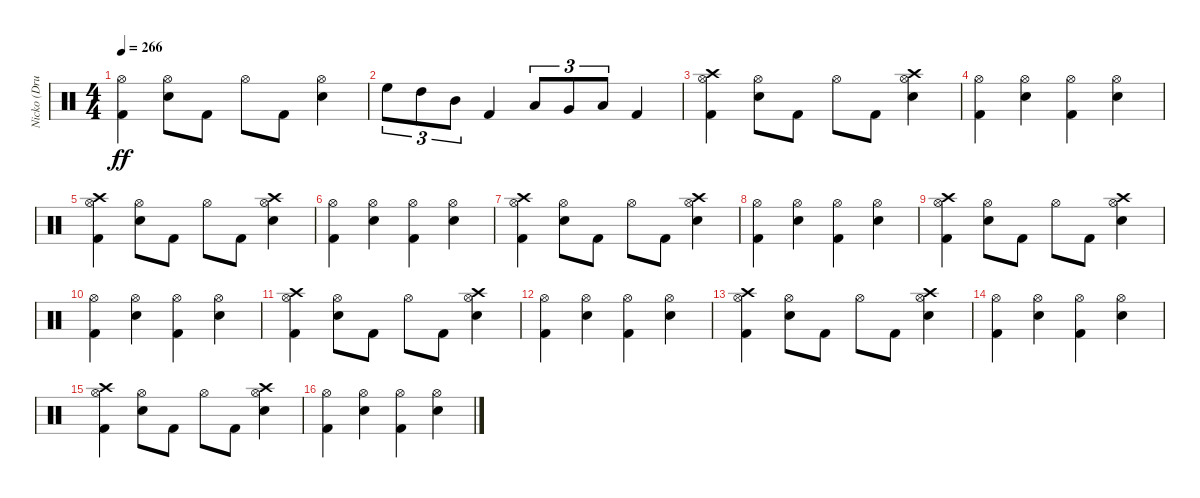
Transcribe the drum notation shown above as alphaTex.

\track ("Nicko (Drums)" "Nicko (Dru") {instrument percussion}
\staff {score}
\articulation defaults
\ts (4 4)
\tempo 266
\clef neutral
\ks c
("Kick (hit) 2" "Hi-Hat (open)").4{dy ff} ("Snare (hit) 2" "Hi-Hat (open)").8 "Kick (hit) 2".8 "Hi-Hat (open)".8 "Kick (hit) 2".8 ("Snare (hit) 2" "Hi-Hat (open)").4 |
"High Floor Tom (hit)".8{tu (3 2)} "High Tom (hit)".8{tu (3 2)} "Mid Tom (hit)".8{tu (3 2)} "Kick (hit) 2".4 "Low Tom (hit)".8{tu (3 2)} "Very Low Tom (hit)".8{tu (3 2)} "Low Floor Tom (hit)".8{tu (3 2)} "Kick (hit) 2".4 |
("Kick (hit) 2" "Hi-Hat (open)" "Crash high (hit)").4 ("Snare (hit) 2" "Hi-Hat (open)").8 "Kick (hit) 2".8 "Hi-Hat (open)".8 "Kick (hit) 2".8 ("Snare (hit) 2" "Hi-Hat (open)" "Crash high (hit)").4 |
("Kick (hit) 2" "Hi-Hat (open)").4 ("Snare (hit) 2" "Hi-Hat (open)").4 ("Kick (hit) 2" "Hi-Hat (open)").4 ("Snare (hit) 2" "Hi-Hat (open)").4 |
("Kick (hit) 2" "Hi-Hat (open)" "Crash high (hit)").4 ("Snare (hit) 2" "Hi-Hat (open)").8 "Kick (hit) 2".8 "Hi-Hat (open)".8 "Kick (hit) 2".8 ("Snare (hit) 2" "Hi-Hat (open)" "Crash high (hit)").4 |
("Kick (hit) 2" "Hi-Hat (open)").4 ("Snare (hit) 2" "Hi-Hat (open)").4 ("Kick (hit) 2" "Hi-Hat (open)").4 ("Snare (hit) 2" "Hi-Hat (open)").4 |
("Kick (hit) 2" "Hi-Hat (open)" "Crash high (hit)").4 ("Snare (hit) 2" "Hi-Hat (open)").8 "Kick (hit) 2".8 "Hi-Hat (open)".8 "Kick (hit) 2".8 ("Snare (hit) 2" "Hi-Hat (open)" "Crash high (hit)").4 |
("Kick (hit) 2" "Hi-Hat (open)").4 ("Snare (hit) 2" "Hi-Hat (open)").4 ("Kick (hit) 2" "Hi-Hat (open)").4 ("Snare (hit) 2" "Hi-Hat (open)").4 |
("Kick (hit) 2" "Hi-Hat (open)" "Crash high (hit)").4 ("Snare (hit) 2" "Hi-Hat (open)").8 "Kick (hit) 2".8 "Hi-Hat (open)".8 "Kick (hit) 2".8 ("Snare (hit) 2" "Hi-Hat (open)" "Crash high (hit)").4 |
("Kick (hit) 2" "Hi-Hat (open)").4 ("Snare (hit) 2" "Hi-Hat (open)").4 ("Kick (hit) 2" "Hi-Hat (open)").4 ("Snare (hit) 2" "Hi-Hat (open)").4 |
("Kick (hit) 2" "Hi-Hat (open)" "Crash high (hit)").4 ("Snare (hit) 2" "Hi-Hat (open)").8 "Kick (hit) 2".8 "Hi-Hat (open)".8 "Kick (hit) 2".8 ("Snare (hit) 2" "Hi-Hat (open)" "Crash high (hit)").4 |
("Kick (hit) 2" "Hi-Hat (open)").4 ("Snare (hit) 2" "Hi-Hat (open)").4 ("Kick (hit) 2" "Hi-Hat (open)").4 ("Snare (hit) 2" "Hi-Hat (open)").4 |
("Kick (hit) 2" "Hi-Hat (open)" "Crash high (hit)").4 ("Snare (hit) 2" "Hi-Hat (open)").8 "Kick (hit) 2".8 "Hi-Hat (open)".8 "Kick (hit) 2".8 ("Snare (hit) 2" "Hi-Hat (open)" "Crash high (hit)").4 |
("Kick (hit) 2" "Hi-Hat (open)").4 ("Snare (hit) 2" "Hi-Hat (open)").4 ("Kick (hit) 2" "Hi-Hat (open)").4 ("Snare (hit) 2" "Hi-Hat (open)").4 |
("Kick (hit) 2" "Hi-Hat (open)" "Crash high (hit)").4 ("Snare (hit) 2" "Hi-Hat (open)").8 "Kick (hit) 2".8 "Hi-Hat (open)".8 "Kick (hit) 2".8 ("Snare (hit) 2" "Hi-Hat (open)" "Crash high (hit)").4 |
("Kick (hit) 2" "Hi-Hat (open)").4 ("Snare (hit) 2" "Hi-Hat (open)").4 ("Kick (hit) 2" "Hi-Hat (open)").4 ("Snare (hit) 2" "Hi-Hat (open)").4
